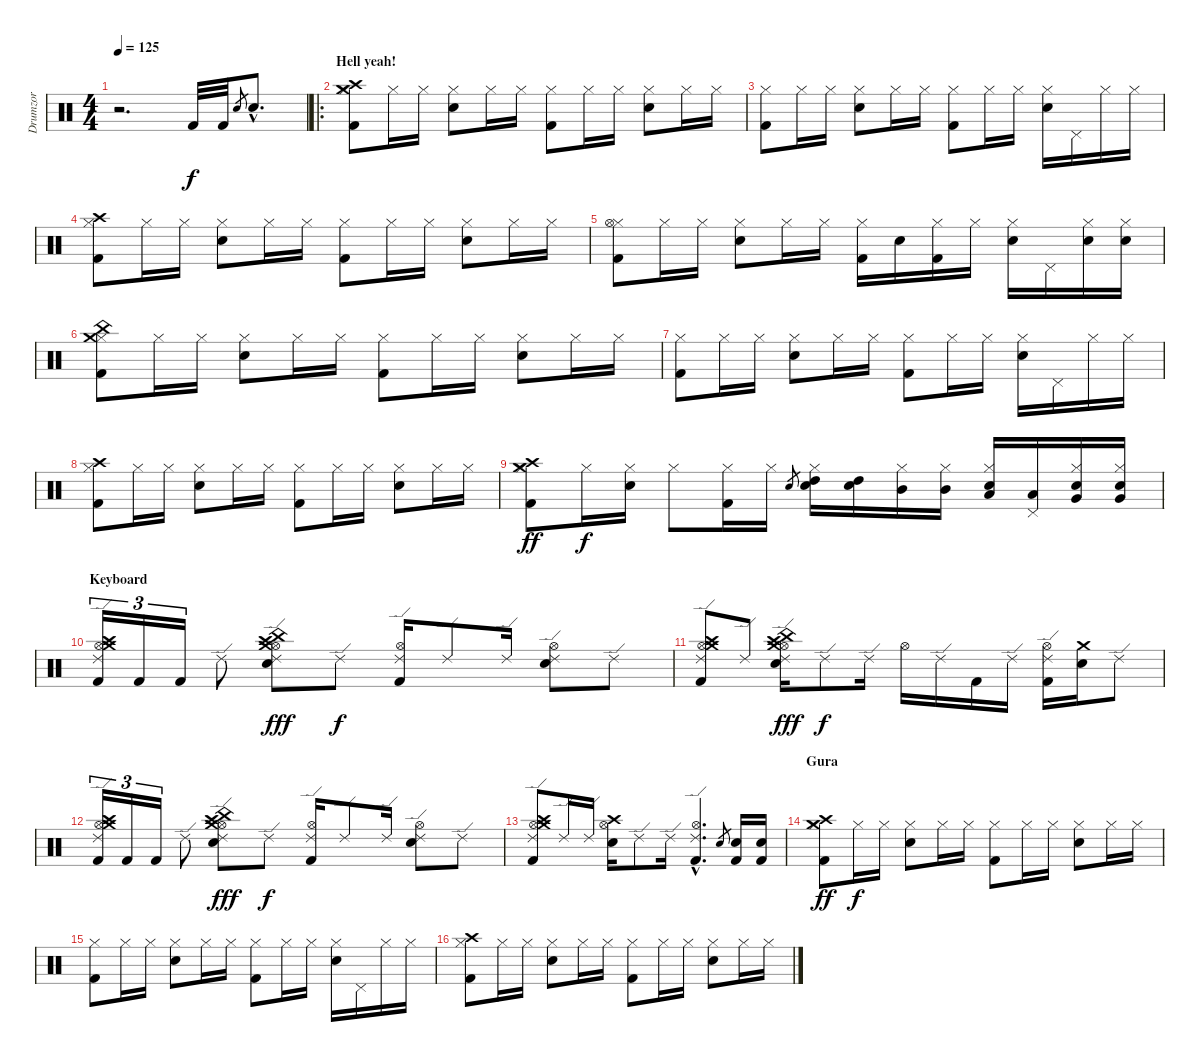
\track ("Drumzor" "Drumzor") {instrument percussion}
\staff {score}
\articulation defaults
\ts (4 4)
\tempo 125
\clef neutral
\ks c
r.2{d dy f} "Kick (hit) 2".32 "Kick (hit) 2".32 "Snare (hit) 2".8{gr} "Electric Snare (hit)"{hac}.8{d} |
\ro
\section ("" "Hell yeah!")
("Hi-Hat (closed)" "Crash high (hit)" "Crash medium (hit)" "Kick (hit) 2").8{volume 13} "Hi-Hat (closed)".16 "Hi-Hat (closed)".16 ("Hi-Hat (closed)" "Electric Snare (hit)").8 "Hi-Hat (closed)".16 "Hi-Hat (closed)".16 ("Hi-Hat (closed)" "Kick (hit) 2").8 "Hi-Hat (closed)".16 "Hi-Hat (closed)".16 ("Hi-Hat (closed)" "Electric Snare (hit)").8 "Hi-Hat (closed)".16 "Hi-Hat (closed)".16 |
("Hi-Hat (closed)" "Kick (hit) 2").8 "Hi-Hat (closed)".16 "Hi-Hat (closed)".16 ("Hi-Hat (closed)" "Electric Snare (hit)").8 "Hi-Hat (closed)".16 "Hi-Hat (closed)".16 ("Hi-Hat (closed)" "Kick (hit) 2").8 "Hi-Hat (closed)".16 "Hi-Hat (closed)".16 ("Hi-Hat (closed)" "Electric Snare (hit)").16 "Pedal Hi-Hat (hit)".16 "Hi-Hat (closed)".16 "Hi-Hat (closed)".16 |
("Hi-Hat (closed)" "Crash high (hit)" "Kick (hit) 2").8 "Hi-Hat (closed)".16 "Hi-Hat (closed)".16 ("Hi-Hat (closed)" "Electric Snare (hit)").8 "Hi-Hat (closed)".16 "Hi-Hat (closed)".16 ("Hi-Hat (closed)" "Kick (hit) 2").8 "Hi-Hat (closed)".16 "Hi-Hat (closed)".16 ("Hi-Hat (closed)" "Electric Snare (hit)").8 "Hi-Hat (closed)".16 "Hi-Hat (closed)".16 |
("Hi-Hat (closed)" "Hi-Hat (open)" "Kick (hit) 2").8 "Hi-Hat (closed)".16 "Hi-Hat (closed)".16 ("Hi-Hat (closed)" "Electric Snare (hit)").8 "Hi-Hat (closed)".16 "Hi-Hat (closed)".16 ("Hi-Hat (closed)" "Kick (hit) 2").16 "Electric Snare (hit)".16 ("Hi-Hat (closed)" "Kick (hit) 2").16 "Hi-Hat (closed)".16 ("Hi-Hat (closed)" "Electric Snare (hit)").16 "Pedal Hi-Hat (hit)".16 ("Hi-Hat (closed)" "Electric Snare (hit)").16 ("Hi-Hat (closed)" "Electric Snare (hit)").16 |
("Hi-Hat (closed)" "China (hit)" "Crash medium (hit)" "Kick (hit) 2").8 "Hi-Hat (closed)".16 "Hi-Hat (closed)".16 ("Hi-Hat (closed)" "Electric Snare (hit)").8 "Hi-Hat (closed)".16 "Hi-Hat (closed)".16 ("Hi-Hat (closed)" "Kick (hit) 2").8 "Hi-Hat (closed)".16 "Hi-Hat (closed)".16 ("Hi-Hat (closed)" "Electric Snare (hit)").8 "Hi-Hat (closed)".16 "Hi-Hat (closed)".16 |
("Hi-Hat (closed)" "Kick (hit) 2").8 "Hi-Hat (closed)".16 "Hi-Hat (closed)".16 ("Hi-Hat (closed)" "Electric Snare (hit)").8 "Hi-Hat (closed)".16 "Hi-Hat (closed)".16 ("Hi-Hat (closed)" "Kick (hit) 2").8 "Hi-Hat (closed)".16 "Hi-Hat (closed)".16 ("Hi-Hat (closed)" "Electric Snare (hit)").16 "Pedal Hi-Hat (hit)".16 "Hi-Hat (closed)".16 "Hi-Hat (closed)".16 |
("Hi-Hat (closed)" "Crash high (hit)" "Kick (hit) 2").8 "Hi-Hat (closed)".16 "Hi-Hat (closed)".16 ("Hi-Hat (closed)" "Electric Snare (hit)").8 "Hi-Hat (closed)".16 "Hi-Hat (closed)".16 ("Hi-Hat (closed)" "Kick (hit) 2").8 "Hi-Hat (closed)".16 "Hi-Hat (closed)".16 ("Hi-Hat (closed)" "Electric Snare (hit)").8 "Hi-Hat (closed)".16 "Hi-Hat (closed)".16 |
("Hi-Hat (closed)" "Crash medium (hit)" "Crash high (hit)" "Kick (hit) 2").8{dy ff} "Hi-Hat (closed)".16{dy f} ("Hi-Hat (closed)" "Electric Snare (hit)").16 "Hi-Hat (closed)".8 ("Hi-Hat (closed)" "Kick (hit) 2").16 "Hi-Hat (closed)".16 "Snare (hit) 2".8{gr} ("Hi-Hat (closed)" "High Tom (hit)" "Electric Snare (hit)").16 ("High Tom (hit)" "Electric Snare (hit)").16 ("Hi-Hat (closed)" "Mid Tom (hit)").16 ("Hi-Hat (closed)" "Mid Tom (hit)").16 ("Hi-Hat (closed)" "Low Tom (hit)" "Electric Snare (hit)").16 ("Pedal Hi-Hat (hit)" "Low Tom (hit)").16 ("Hi-Hat (closed)" "Very Low Tom (hit)" "Electric Snare (hit)").16 ("Hi-Hat (closed)" "Very Low Tom (hit)" "Electric Snare (hit)").16 |
\section ("" "Keyboard")
("Hi-Hat (open)" "Crash medium (hit)" "Crash high (hit)" "Ride (edge) 2" "Kick (hit) 2").16{tu (3 2)} "Kick (hit) 2".16{tu (3 2)} "Kick (hit) 2".16{tu (3 2)} "Ride (edge) 2".8 ("Hi-Hat (open)" "China (hit)" "Crash medium (hit)" "Ride (edge) 2" "Crash high (hit)" "Electric Snare (hit)").8{dy fff} "Ride (edge) 2".8{dy f} ("Hi-Hat (open)" "Ride (edge) 2" "Kick (hit) 2").16 "Ride (edge) 2".8 "Ride (edge) 2".16 ("Hi-Hat (open)" "Ride (edge) 2" "Electric Snare (hit)").8 "Ride (edge) 2".8 |
("Hi-Hat (open)" "Crash medium (hit)" "Crash high (hit)" "Ride (edge) 2" "Kick (hit) 2").8 "Ride (edge) 2".8 ("Hi-Hat (open)" "China (hit)" "Crash medium (hit)" "Ride (edge) 2" "Crash high (hit)" "Electric Snare (hit)").16{dy fff} "Ride (edge) 2".8{dy f} "Ride (edge) 2".16 "Hi-Hat (open)".16 "Ride (edge) 2".16 "Kick (hit) 2".16 "Ride (edge) 2".16 ("Hi-Hat (open)" "Ride (edge) 2" "Kick (hit) 2").16 ("Crash medium (hit)" "Electric Snare (hit)").16 "Ride (edge) 2".8 |
("Hi-Hat (open)" "Crash medium (hit)" "Crash high (hit)" "Ride (edge) 2" "Kick (hit) 2").16{tu (3 2)} "Kick (hit) 2".16{tu (3 2)} "Kick (hit) 2".16{tu (3 2)} "Ride (edge) 2".8 ("Hi-Hat (open)" "China (hit)" "Crash medium (hit)" "Ride (edge) 2" "Crash high (hit)" "Electric Snare (hit)").8{dy fff} "Ride (edge) 2".8{dy f} ("Hi-Hat (open)" "Ride (edge) 2" "Kick (hit) 2").16 "Ride (edge) 2".8 "Ride (edge) 2".16 ("Hi-Hat (open)" "Ride (edge) 2" "Electric Snare (hit)").8 "Ride (edge) 2".8 |
("Hi-Hat (open)" "Crash medium (hit)" "Crash high (hit)" "Ride (edge) 2" "Kick (hit) 2").8 "Ride (edge) 2".16 "Ride (edge) 2".16 ("Hi-Hat (open)" "Crash high (hit)" "Electric Snare (hit)").16 "Ride (edge) 2".8 "Ride (edge) 2".16 ("Hi-Hat (open)"{hac} "Ride (edge) 2"{hac} "Kick (hit) 2"{hac}).4{d} "Snare (hit) 2".8{gr} ("Electric Snare (hit)" "Kick (hit) 2").16 ("Snare (hit) 2" "Kick (hit) 2").16 |
\section ("" "Gura")
("Hi-Hat (closed)" "Crash high (hit)" "Crash medium (hit)" "Kick (hit) 2").8{dy ff} "Hi-Hat (closed)".16{dy f} "Hi-Hat (closed)".16 ("Hi-Hat (closed)" "Electric Snare (hit)").8 "Hi-Hat (closed)".16 "Hi-Hat (closed)".16 ("Hi-Hat (closed)" "Kick (hit) 2").8 "Hi-Hat (closed)".16 "Hi-Hat (closed)".16 ("Hi-Hat (closed)" "Electric Snare (hit)").8 "Hi-Hat (closed)".16 "Hi-Hat (closed)".16 |
("Hi-Hat (closed)" "Kick (hit) 2").8 "Hi-Hat (closed)".16 "Hi-Hat (closed)".16 ("Hi-Hat (closed)" "Electric Snare (hit)").8 "Hi-Hat (closed)".16 "Hi-Hat (closed)".16 ("Hi-Hat (closed)" "Kick (hit) 2").8 "Hi-Hat (closed)".16 "Hi-Hat (closed)".16 ("Hi-Hat (closed)" "Electric Snare (hit)").16 "Pedal Hi-Hat (hit)".16 "Hi-Hat (closed)".16 "Hi-Hat (closed)".16 |
("Hi-Hat (closed)" "Crash high (hit)" "Kick (hit) 2").8 "Hi-Hat (closed)".16 "Hi-Hat (closed)".16 ("Hi-Hat (closed)" "Electric Snare (hit)").8 "Hi-Hat (closed)".16 "Hi-Hat (closed)".16 ("Hi-Hat (closed)" "Kick (hit) 2").8 "Hi-Hat (closed)".16 "Hi-Hat (closed)".16 ("Hi-Hat (closed)" "Electric Snare (hit)").8 "Hi-Hat (closed)".16 "Hi-Hat (closed)".16
